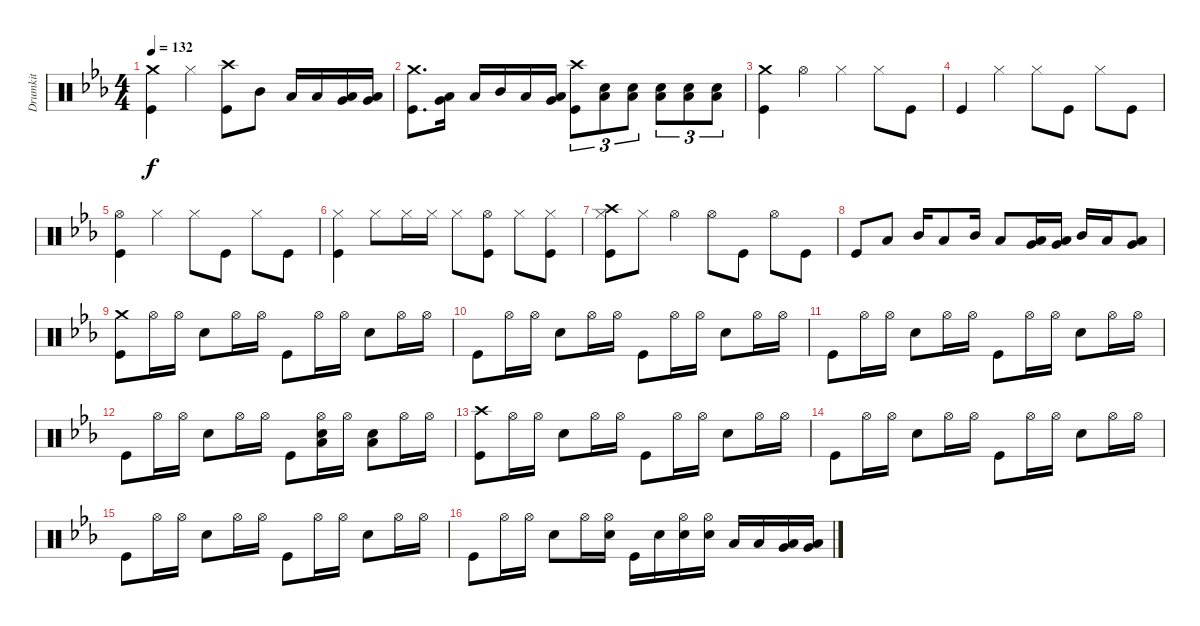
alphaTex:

\track ("Drumkit" "Drumkit") {instrument percussion}
\staff {score}
\articulation defaults
\ts (4 4)
\tempo 132
\clef neutral
\ks eb
("Kick (hit)" "Crash medium (hit)").4{dy f} "Hi-Hat (closed)".4 ("Kick (hit)" "Crash high (hit)").8 "Mid Tom (hit)".8 "Low Tom (hit)".16 "Low Tom (hit)".16 ("Very Low Tom (hit)" "Low Floor Tom (hit)").16 ("Low Floor Tom (hit)" "Very Low Tom (hit)").16 |
("Kick (hit)" "Crash medium (hit)").8{d} ("Very Low Tom (hit)" "Low Floor Tom (hit)").16 "Low Tom (hit)".16 "Mid Tom (hit)".16 "Low Tom (hit)".16 ("Very Low Tom (hit)" "Low Floor Tom (hit)").16 ("Kick (hit)" "Crash high (hit)").8{tu (3 2)} ("Snare (hit) 2" "Low Floor Tom (hit)").8{tu (3 2)} ("Low Floor Tom (hit)" "Snare (hit) 2").8{tu (3 2)} ("Snare (hit) 2" "Low Floor Tom (hit)").8{tu (3 2)} ("Snare (hit) 2" "Low Floor Tom (hit)").8{tu (3 2)} ("Snare (hit) 2" "Low Floor Tom (hit)").8{tu (3 2)} |
("Kick (hit)" "Crash medium (hit)").4 "Hi-Hat (open)".4 "Hi-Hat (closed)".4 "Hi-Hat (closed)".8 "Kick (hit)".8 |
"Kick (hit)".4 "Hi-Hat (closed)".4 "Hi-Hat (closed)".8 "Kick (hit)".8 "Hi-Hat (closed)".8 "Kick (hit)".8 |
("Kick (hit)" "Hi-Hat (open)").4 "Hi-Hat (closed)".4 "Hi-Hat (closed)".8 "Kick (hit)".8 "Hi-Hat (closed)".8 "Kick (hit)".8 |
("Kick (hit)" "Hi-Hat (closed)").4 "Hi-Hat (closed)".8 "Hi-Hat (closed)".16 "Hi-Hat (closed)".16 "Hi-Hat (closed)".8 ("Kick (hit)" "Hi-Hat (open)").8 "Hi-Hat (closed)".8 ("Kick (hit)" "Hi-Hat (closed)").8 |
("Kick (hit)" "Crash high (hit)" "Hi-Hat (closed)").8 "Hi-Hat (closed)".8 "Hi-Hat (open)".4 "Hi-Hat (open)".8 "Kick (hit)".8 "Hi-Hat (open)".8 "Kick (hit)".8 |
"Kick (hit)".8 "Low Tom (hit)".8 "Mid Tom (hit)".16 "Low Tom (hit)".8 "Mid Tom (hit)".16 "Low Tom (hit)".8 ("Low Floor Tom (hit)" "Very Low Tom (hit)").16 ("Very Low Tom (hit)" "Low Floor Tom (hit)").16 "Mid Tom (hit)".16 "Low Tom (hit)".16 ("Very Low Tom (hit)" "Low Floor Tom (hit)").8 |
("Kick (hit)" "Crash medium (hit)").8 "Hi-Hat (open)".16 "Hi-Hat (open)".16 "Snare (hit) 2".8 "Hi-Hat (open)".16 "Hi-Hat (open)".16 "Kick (hit)".8 "Hi-Hat (open)".16 "Hi-Hat (open)".16 "Snare (hit) 2".8 "Hi-Hat (open)".16 "Hi-Hat (open)".16 |
"Kick (hit)".8 "Hi-Hat (open)".16 "Hi-Hat (open)".16 "Snare (hit) 2".8 "Hi-Hat (open)".16 "Hi-Hat (open)".16 "Kick (hit)".8 "Hi-Hat (open)".16 "Hi-Hat (open)".16 "Snare (hit) 2".8 "Hi-Hat (open)".16 "Hi-Hat (open)".16 |
"Kick (hit)".8 "Hi-Hat (open)".16 "Hi-Hat (open)".16 "Snare (hit) 2".8 "Hi-Hat (open)".16 "Hi-Hat (open)".16 "Kick (hit)".8 "Hi-Hat (open)".16 "Hi-Hat (open)".16 "Snare (hit) 2".8 "Hi-Hat (open)".16 "Hi-Hat (open)".16 |
"Kick (hit)".8 "Hi-Hat (open)".16 "Hi-Hat (open)".16 "Snare (hit) 2".8 "Hi-Hat (open)".16 "Hi-Hat (open)".16 "Kick (hit)".8 ("Hi-Hat (open)" "Snare (hit) 2" "Low Floor Tom (hit)").16 "Hi-Hat (open)".16 ("Snare (hit) 2" "Low Floor Tom (hit)").8 "Hi-Hat (open)".16 "Hi-Hat (open)".16 |
("Kick (hit)" "Crash high (hit)").8 "Hi-Hat (open)".16 "Hi-Hat (open)".16 "Snare (hit) 2".8 "Hi-Hat (open)".16 "Hi-Hat (open)".16 "Kick (hit)".8 "Hi-Hat (open)".16 "Hi-Hat (open)".16 "Snare (hit) 2".8 "Hi-Hat (open)".16 "Hi-Hat (open)".16 |
"Kick (hit)".8 "Hi-Hat (open)".16 "Hi-Hat (open)".16 "Snare (hit) 2".8 "Hi-Hat (open)".16 "Hi-Hat (open)".16 "Kick (hit)".8 "Hi-Hat (open)".16 "Hi-Hat (open)".16 "Snare (hit) 2".8 "Hi-Hat (open)".16 "Hi-Hat (open)".16 |
"Kick (hit)".8 "Hi-Hat (open)".16 "Hi-Hat (open)".16 "Snare (hit) 2".8 "Hi-Hat (open)".16 "Hi-Hat (open)".16 "Kick (hit)".8 "Hi-Hat (open)".16 "Hi-Hat (open)".16 "Snare (hit) 2".8 "Hi-Hat (open)".16 "Hi-Hat (open)".16 |
"Kick (hit)".8 "Hi-Hat (open)".16 "Hi-Hat (open)".16 "Snare (hit) 2".8 "Hi-Hat (open)".16 ("Hi-Hat (open)" "Snare (hit) 2").16 "Kick (hit)".16 "Snare (hit) 2".16 ("Snare (hit) 2" "Hi-Hat (open)").16 ("Snare (hit) 2" "Hi-Hat (open)").16 "Low Tom (hit)".16 "Low Tom (hit)".16 ("Very Low Tom (hit)" "Low Floor Tom (hit)").16 ("Very Low Tom (hit)" "Low Floor Tom (hit)").16
